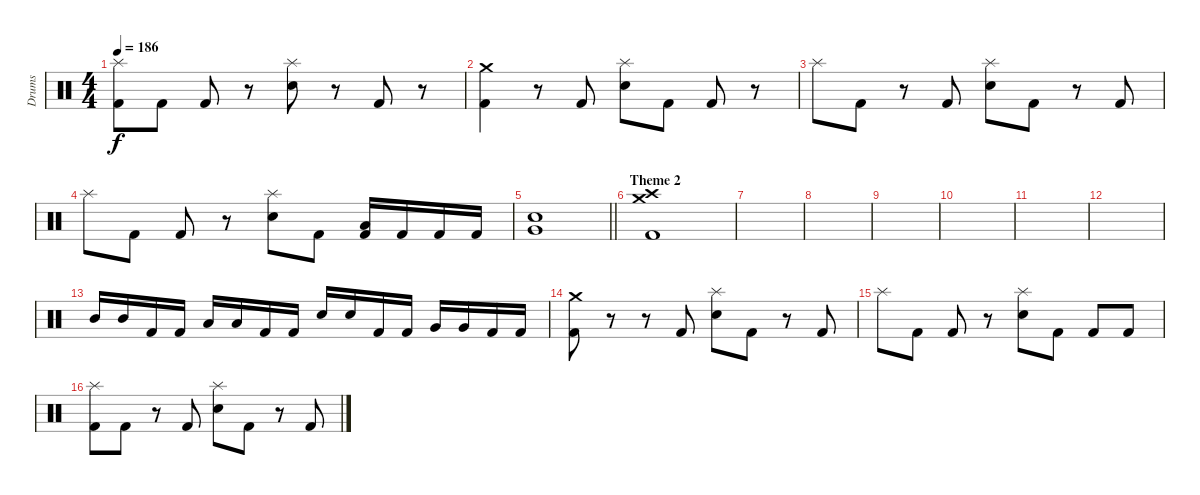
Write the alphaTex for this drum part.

\track ("Drums" "Drums") {instrument percussion}
\staff {score}
\articulation defaults
\ts (4 4)
\tempo 186
\clef neutral
\ks c
("Splash (hit)" "Kick (hit) 2").8{dy f} "Kick (hit) 2".8 "Kick (hit) 2".8 r.8 ("Splash (hit)" "Electric Snare (hit)").8 r.8 "Kick (hit) 2".8 r.8 |
("Crash medium (hit)" "Kick (hit) 2").4 r.8 "Kick (hit) 2".8 ("Splash (hit)" "Electric Snare (hit)").8 "Kick (hit) 2".8 "Kick (hit) 2".8 r.8 |
"Splash (hit)".8 "Kick (hit) 2".8 r.8 "Kick (hit) 2".8 ("Splash (hit)" "Electric Snare (hit)").8 "Kick (hit) 2".8 r.8 "Kick (hit) 2".8 |
"Splash (hit)".8 "Kick (hit) 2".8 "Kick (hit) 2".8 r.8 ("Splash (hit)" "Electric Snare (hit)").8 "Kick (hit) 2".8 ("Low Tom (hit)" "Kick (hit) 2").16 "Kick (hit) 2".16 "Kick (hit) 2".16 "Kick (hit) 2".16 |
\barLineRight lightlight
("Very Low Tom (hit)" "Electric Snare (hit)").1 |
\section ("" "Theme 2")
("Crash medium (hit)" "Crash high (hit)" "Kick (hit) 2").1 |
|
|
|
|
|
|
"Mid Tom (hit)".16 "Mid Tom (hit)".16 "Kick (hit) 2".16 "Kick (hit) 2".16 "Low Tom (hit)".16 "Low Tom (hit)".16 "Kick (hit) 2".16 "Kick (hit) 2".16 "Electric Snare (hit)".16 "Electric Snare (hit)".16 "Kick (hit) 2".16 "Kick (hit) 2".16 "Very Low Tom (hit)".16 "Very Low Tom (hit)".16 "Kick (hit) 2".16 "Kick (hit) 2".16 |
("Crash medium (hit)" "Kick (hit) 2").8 r.8 r.8 "Kick (hit) 2".8 ("Splash (hit)" "Electric Snare (hit)").8 "Kick (hit) 2".8 r.8 "Kick (hit) 2".8 |
"Splash (hit)".8 "Kick (hit) 2".8 "Kick (hit) 2".8 r.8 ("Splash (hit)" "Electric Snare (hit)").8 "Kick (hit) 2".8 "Kick (hit) 2".8 "Kick (hit) 2".8 |
("Splash (hit)" "Kick (hit) 2").8 "Kick (hit) 2".8 r.8 "Kick (hit) 2".8 ("Splash (hit)" "Electric Snare (hit)").8 "Kick (hit) 2".8 r.8 "Kick (hit) 2".8
